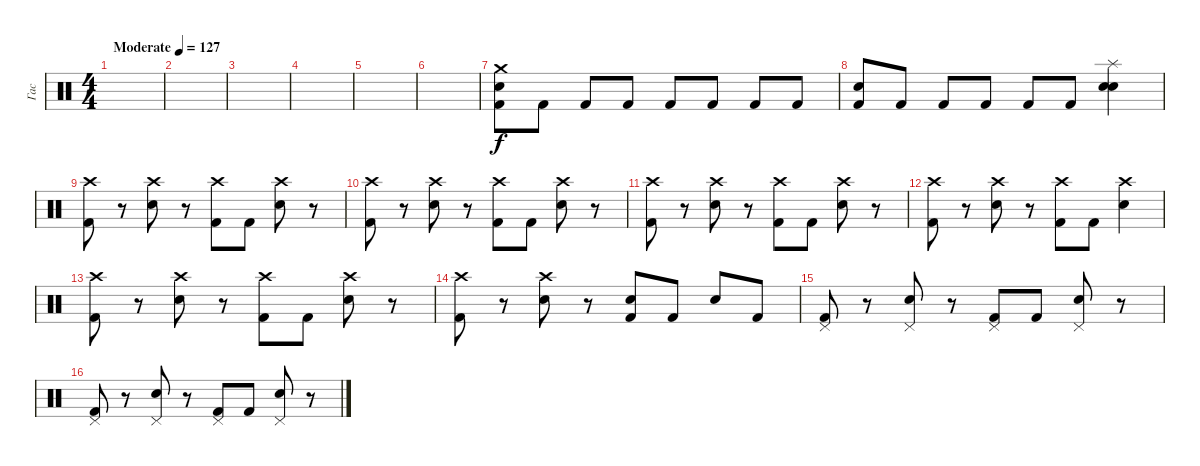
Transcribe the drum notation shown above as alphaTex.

\track ("Гас" "Гас") {instrument percussion}
\staff {score}
\articulation defaults
\ts (4 4)
\tempo (127 "Moderate")
\clef neutral
\ks c
|
|
|
|
|
|
("Crash medium (hit)" "Kick (hit) 2" "Electric Snare (hit)").8 "Kick (hit) 2".8 "Kick (hit) 2".8 "Kick (hit) 2".8 "Kick (hit) 2".8 "Kick (hit) 2".8 "Kick (hit) 2".8 "Kick (hit) 2".8 |
("Electric Snare (hit)" "Kick (hit) 2").8 "Kick (hit) 2".8 "Kick (hit) 2".8 "Kick (hit) 2".8 "Kick (hit) 2".8 "Kick (hit) 2".8 ("Splash (hit)" "Snare (hit) 2" "Electric Snare (hit)").4 |
("Crash high (hit)" "Kick (hit) 2").8 r.8 ("Crash high (hit)" "Electric Snare (hit)").8 r.8 ("Crash high (hit)" "Kick (hit) 2").8 "Kick (hit) 2".8 ("Crash high (hit)" "Electric Snare (hit)").8 r.8 |
("Crash high (hit)" "Kick (hit) 2").8 r.8 ("Crash high (hit)" "Electric Snare (hit)").8 r.8 ("Crash high (hit)" "Kick (hit) 2").8 "Kick (hit) 2".8 ("Crash high (hit)" "Electric Snare (hit)").8 r.8 |
("Crash high (hit)" "Kick (hit) 2").8 r.8 ("Crash high (hit)" "Electric Snare (hit)").8 r.8 ("Crash high (hit)" "Kick (hit) 2").8 "Kick (hit) 2".8 ("Crash high (hit)" "Electric Snare (hit)").8 r.8 |
("Crash high (hit)" "Kick (hit) 2").8 r.8 ("Crash high (hit)" "Electric Snare (hit)").8 r.8 ("Crash high (hit)" "Kick (hit) 2").8 "Kick (hit) 2".8 ("Crash high (hit)" "Electric Snare (hit)").4 |
("Crash high (hit)" "Kick (hit) 2").8 r.8 ("Crash high (hit)" "Electric Snare (hit)").8 r.8 ("Crash high (hit)" "Kick (hit) 2").8 "Kick (hit) 2".8 ("Crash high (hit)" "Electric Snare (hit)").8 r.8 |
("Crash high (hit)" "Kick (hit) 2").8 r.8 ("Crash high (hit)" "Electric Snare (hit)").8 r.8 ("Electric Snare (hit)" "Kick (hit) 2").8 "Kick (hit) 2".8 "Electric Snare (hit)".8 "Kick (hit) 2".8 |
("Pedal Hi-Hat (hit)" "Kick (hit) 2").8 r.8 ("Pedal Hi-Hat (hit)" "Electric Snare (hit)").8 r.8 ("Pedal Hi-Hat (hit)" "Kick (hit) 2").8 "Kick (hit) 2".8 ("Pedal Hi-Hat (hit)" "Electric Snare (hit)").8 r.8 |
("Pedal Hi-Hat (hit)" "Kick (hit) 2").8 r.8 ("Pedal Hi-Hat (hit)" "Electric Snare (hit)").8 r.8 ("Pedal Hi-Hat (hit)" "Kick (hit) 2").8 "Kick (hit) 2".8 ("Pedal Hi-Hat (hit)" "Electric Snare (hit)").8 r.8
